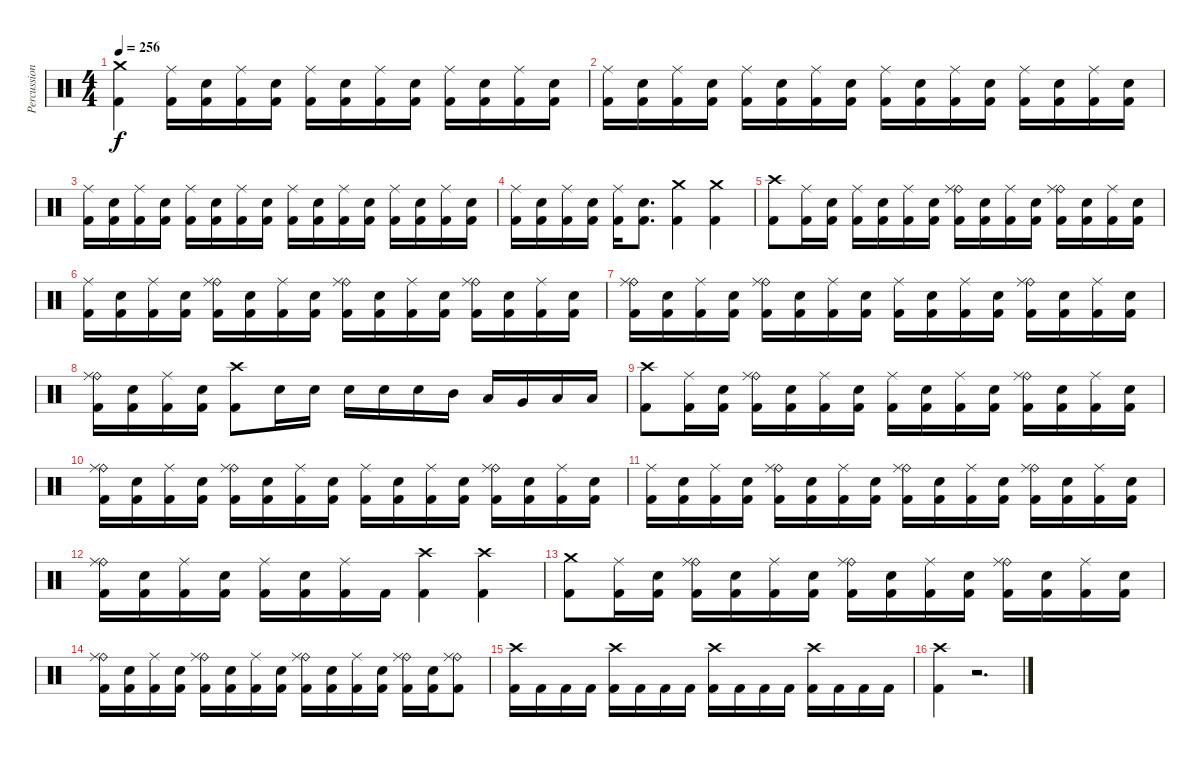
\track ("Percussion" "Percussion") {instrument percussion}
\staff {score}
\articulation defaults
\ts (4 4)
\tempo 256
\clef neutral
\ks c
("Crash medium (hit)" "Kick (hit) 2").4{dy f volume 16 balance 8} ("Ride (middle)" "Kick (hit) 2").16 ("Snare (hit) 2" "Kick (hit) 2").16 ("Ride (middle)" "Kick (hit) 2").16 ("Snare (hit) 2" "Kick (hit) 2").16 ("Ride (middle)" "Kick (hit) 2").16 ("Snare (hit) 2" "Kick (hit) 2").16 ("Ride (middle)" "Kick (hit) 2").16 ("Snare (hit) 2" "Kick (hit) 2").16 ("Ride (middle)" "Kick (hit) 2").16 ("Kick (hit) 2" "Snare (hit) 2").16 ("Ride (middle)" "Kick (hit) 2").16 ("Kick (hit) 2" "Snare (hit) 2").16 |
("Ride (middle)" "Kick (hit) 2").16{volume 16 balance 8} ("Snare (hit) 2" "Kick (hit) 2").16 ("Ride (middle)" "Kick (hit) 2").16 ("Snare (hit) 2" "Kick (hit) 2").16 ("Ride (middle)" "Kick (hit) 2").16 ("Snare (hit) 2" "Kick (hit) 2").16 ("Ride (middle)" "Kick (hit) 2").16 ("Snare (hit) 2" "Kick (hit) 2").16 ("Ride (middle)" "Kick (hit) 2").16 ("Snare (hit) 2" "Kick (hit) 2").16 ("Ride (middle)" "Kick (hit) 2").16 ("Snare (hit) 2" "Kick (hit) 2").16 ("Ride (middle)" "Kick (hit) 2").16 ("Snare (hit) 2" "Kick (hit) 2").16 ("Ride (middle)" "Kick (hit) 2").16 ("Snare (hit) 2" "Kick (hit) 2").16 |
("Ride (middle)" "Kick (hit) 2").16 ("Snare (hit) 2" "Kick (hit) 2").16 ("Ride (middle)" "Kick (hit) 2").16 ("Snare (hit) 2" "Kick (hit) 2").16 ("Ride (middle)" "Kick (hit) 2").16 ("Snare (hit) 2" "Kick (hit) 2").16 ("Ride (middle)" "Kick (hit) 2").16 ("Snare (hit) 2" "Kick (hit) 2").16 ("Ride (middle)" "Kick (hit) 2").16 ("Snare (hit) 2" "Kick (hit) 2").16 ("Ride (middle)" "Kick (hit) 2").16 ("Snare (hit) 2" "Kick (hit) 2").16 ("Ride (middle)" "Kick (hit) 2").16 ("Snare (hit) 2" "Kick (hit) 2").16 ("Ride (middle)" "Kick (hit) 2").16 ("Snare (hit) 2" "Kick (hit) 2").16 |
("Ride (middle)" "Kick (hit) 2").16 ("Snare (hit) 2" "Kick (hit) 2").16 ("Ride (middle)" "Kick (hit) 2").16 ("Snare (hit) 2" "Kick (hit) 2").16 ("Ride (middle)" "Kick (hit) 2").16 ("Snare (hit) 2" "Kick (hit) 2").8{d} ("Crash medium (hit)" "Kick (hit) 2").4 ("Crash medium (hit)" "Kick (hit) 2").4 |
("Crash high (hit)" "Kick (hit) 2").8 ("Ride (middle)" "Kick (hit) 2").16 ("Snare (hit) 2" "Kick (hit) 2").16 ("Ride (middle)" "Kick (hit) 2").16 ("Snare (hit) 2" "Kick (hit) 2").16 ("Ride (middle)" "Kick (hit) 2").16 ("Snare (hit) 2" "Kick (hit) 2").16 ("Ride (bell)" "Ride (middle)" "Kick (hit) 2").16 ("Snare (hit) 2" "Kick (hit) 2").16 ("Ride (middle)" "Kick (hit) 2").16 ("Snare (hit) 2" "Kick (hit) 2").16 ("Ride (bell)" "Ride (middle)" "Kick (hit) 2").16 ("Kick (hit) 2" "Snare (hit) 2").16 ("Ride (middle)" "Kick (hit) 2").16 ("Kick (hit) 2" "Snare (hit) 2").16 |
("Ride (middle)" "Kick (hit) 2").16 ("Snare (hit) 2" "Kick (hit) 2").16 ("Ride (middle)" "Kick (hit) 2").16 ("Snare (hit) 2" "Kick (hit) 2").16 ("Ride (bell)" "Ride (middle)" "Kick (hit) 2").16 ("Snare (hit) 2" "Kick (hit) 2").16 ("Ride (middle)" "Kick (hit) 2").16 ("Snare (hit) 2" "Kick (hit) 2").16 ("Ride (bell)" "Ride (middle)" "Kick (hit) 2").16 ("Snare (hit) 2" "Kick (hit) 2").16 ("Ride (middle)" "Kick (hit) 2").16 ("Snare (hit) 2" "Kick (hit) 2").16 ("Ride (bell)" "Ride (middle)" "Kick (hit) 2").16 ("Snare (hit) 2" "Kick (hit) 2").16 ("Ride (middle)" "Kick (hit) 2").16 ("Snare (hit) 2" "Kick (hit) 2").16 |
("Ride (bell)" "Ride (middle)" "Kick (hit) 2").16 ("Snare (hit) 2" "Kick (hit) 2").16 ("Ride (middle)" "Kick (hit) 2").16 ("Snare (hit) 2" "Kick (hit) 2").16 ("Ride (bell)" "Ride (middle)" "Kick (hit) 2").16 ("Snare (hit) 2" "Kick (hit) 2").16 ("Ride (middle)" "Kick (hit) 2").16 ("Snare (hit) 2" "Kick (hit) 2").16 ("Ride (middle)" "Kick (hit) 2").16 ("Snare (hit) 2" "Kick (hit) 2").16 ("Ride (middle)" "Kick (hit) 2").16 ("Snare (hit) 2" "Kick (hit) 2").16 ("Ride (bell)" "Ride (middle)" "Kick (hit) 2").16 ("Snare (hit) 2" "Kick (hit) 2").16 ("Ride (middle)" "Kick (hit) 2").16 ("Snare (hit) 2" "Kick (hit) 2").16 |
("Ride (bell)" "Ride (middle)" "Kick (hit) 2").16 ("Snare (hit) 2" "Kick (hit) 2").16 ("Ride (middle)" "Kick (hit) 2").16 ("Snare (hit) 2" "Kick (hit) 2").16 ("Crash high (hit)" "Kick (hit) 2").8 "Snare (hit) 2".16 "Snare (hit) 2".16 "Snare (hit) 2".16 "Snare (hit) 2".16 "Snare (hit) 2".16 "Mid Tom (hit)".16 "Low Tom (hit)".16 "Very Low Tom (hit)".16 "Low Floor Tom (hit)".16 "Low Floor Tom (hit)".16 |
("Crash high (hit)" "Kick (hit) 2").8 ("Ride (middle)" "Kick (hit) 2").16 ("Snare (hit) 2" "Kick (hit) 2").16 ("Ride (bell)" "Ride (middle)" "Kick (hit) 2").16 ("Snare (hit) 2" "Kick (hit) 2").16 ("Ride (middle)" "Kick (hit) 2").16 ("Snare (hit) 2" "Kick (hit) 2").16 ("Ride (middle)" "Kick (hit) 2").16 ("Snare (hit) 2" "Kick (hit) 2").16 ("Ride (middle)" "Kick (hit) 2").16 ("Snare (hit) 2" "Kick (hit) 2").16 ("Ride (bell)" "Ride (middle)" "Kick (hit) 2").16 ("Kick (hit) 2" "Snare (hit) 2").16 ("Ride (middle)" "Kick (hit) 2").16 ("Kick (hit) 2" "Snare (hit) 2").16 |
("Ride (bell)" "Ride (middle)" "Kick (hit) 2").16 ("Snare (hit) 2" "Kick (hit) 2").16 ("Ride (middle)" "Kick (hit) 2").16 ("Snare (hit) 2" "Kick (hit) 2").16 ("Ride (bell)" "Ride (middle)" "Kick (hit) 2").16 ("Snare (hit) 2" "Kick (hit) 2").16 ("Ride (middle)" "Kick (hit) 2").16 ("Snare (hit) 2" "Kick (hit) 2").16 ("Ride (middle)" "Kick (hit) 2").16 ("Snare (hit) 2" "Kick (hit) 2").16 ("Ride (middle)" "Kick (hit) 2").16 ("Snare (hit) 2" "Kick (hit) 2").16 ("Ride (bell)" "Ride (middle)" "Kick (hit) 2").16 ("Snare (hit) 2" "Kick (hit) 2").16 ("Ride (middle)" "Kick (hit) 2").16 ("Snare (hit) 2" "Kick (hit) 2").16 |
("Ride (middle)" "Kick (hit) 2").16 ("Snare (hit) 2" "Kick (hit) 2").16 ("Ride (middle)" "Kick (hit) 2").16 ("Snare (hit) 2" "Kick (hit) 2").16 ("Ride (bell)" "Ride (middle)" "Kick (hit) 2").16 ("Snare (hit) 2" "Kick (hit) 2").16 ("Ride (middle)" "Kick (hit) 2").16 ("Snare (hit) 2" "Kick (hit) 2").16 ("Ride (bell)" "Ride (middle)" "Kick (hit) 2").16 ("Snare (hit) 2" "Kick (hit) 2").16 ("Ride (middle)" "Kick (hit) 2").16 ("Snare (hit) 2" "Kick (hit) 2").16 ("Ride (bell)" "Ride (middle)" "Kick (hit) 2").16 ("Snare (hit) 2" "Kick (hit) 2").16 ("Ride (middle)" "Kick (hit) 2").16 ("Snare (hit) 2" "Kick (hit) 2").16 |
("Ride (bell)" "Ride (middle)" "Kick (hit) 2").16 ("Snare (hit) 2" "Kick (hit) 2").16 ("Ride (middle)" "Kick (hit) 2").16 ("Snare (hit) 2" "Kick (hit) 2").16 ("Ride (middle)" "Kick (hit) 2").16 ("Snare (hit) 2" "Kick (hit) 2").16 ("Ride (middle)" "Kick (hit) 2").16 "Kick (hit) 2".16 ("Crash high (hit)" "Kick (hit) 2").4 ("Crash high (hit)" "Kick (hit) 2").4 |
("Crash medium (hit)" "Kick (hit) 2").8 ("Ride (middle)" "Kick (hit) 2").16 ("Snare (hit) 2" "Kick (hit) 2").16 ("Ride (bell)" "Ride (middle)" "Kick (hit) 2").16 ("Snare (hit) 2" "Kick (hit) 2").16 ("Ride (middle)" "Kick (hit) 2").16 ("Snare (hit) 2" "Kick (hit) 2").16 ("Ride (bell)" "Ride (middle)" "Kick (hit) 2").16 ("Snare (hit) 2" "Kick (hit) 2").16 ("Ride (middle)" "Kick (hit) 2").16 ("Snare (hit) 2" "Kick (hit) 2").16 ("Ride (bell)" "Ride (middle)" "Kick (hit) 2").16 ("Kick (hit) 2" "Snare (hit) 2").16 ("Ride (middle)" "Kick (hit) 2").16 ("Kick (hit) 2" "Snare (hit) 2").16 |
("Ride (bell)" "Ride (middle)" "Kick (hit) 2").16 ("Snare (hit) 2" "Kick (hit) 2").16 ("Ride (middle)" "Kick (hit) 2").16 ("Snare (hit) 2" "Kick (hit) 2").16 ("Ride (bell)" "Ride (middle)" "Kick (hit) 2").16 ("Snare (hit) 2" "Kick (hit) 2").16 ("Ride (middle)" "Kick (hit) 2").16 ("Snare (hit) 2" "Kick (hit) 2").16 ("Ride (bell)" "Ride (middle)" "Kick (hit) 2").16 ("Snare (hit) 2" "Kick (hit) 2").16 ("Ride (middle)" "Kick (hit) 2").16 ("Snare (hit) 2" "Kick (hit) 2").16 ("Ride (bell)" "Ride (middle)" "Kick (hit) 2").16 ("Snare (hit) 2" "Kick (hit) 2").16 ("Ride (bell)" "Ride (middle)" "Kick (hit) 2").8 |
("Crash high (hit)" "Kick (hit) 2").16 "Kick (hit) 2".16 "Kick (hit) 2".16 "Kick (hit) 2".16 ("Crash high (hit)" "Kick (hit) 2").16 "Kick (hit) 2".16 "Kick (hit) 2".16 "Kick (hit) 2".16 ("Crash high (hit)" "Kick (hit) 2").16 "Kick (hit) 2".16 "Kick (hit) 2".16 "Kick (hit) 2".16 ("Crash high (hit)" "Kick (hit) 2").16 "Kick (hit) 2".16 "Kick (hit) 2".16 "Kick (hit) 2".16 |
("Crash high (hit)" "Kick (hit) 2").4 r.2{d volume 0}
